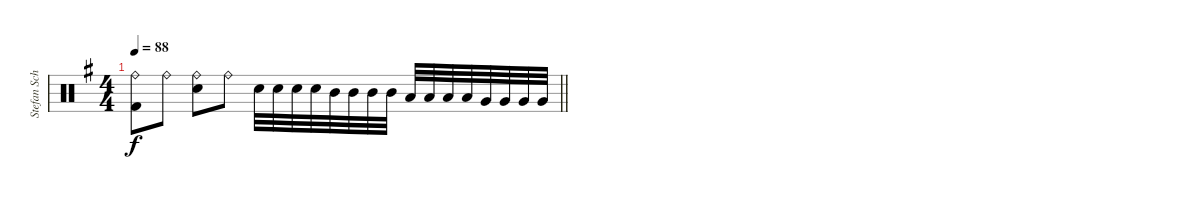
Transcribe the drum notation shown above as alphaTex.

\track ("Stefan Schwarzmann" "Stefan Sch") {instrument percussion}
\staff {score}
\articulation defaults
\ts (4 4)
\tempo 88
\clef neutral
\barLineRight lightlight
\ks eminor
("Ride (bell)" "Kick (hit) 2").8{dy f} "Ride (bell)".8 ("Ride (bell)" "Snare (hit) 2").8 "Ride (bell)".8 "Snare (hit) 2".32 "Snare (hit) 2".32 "Snare (hit) 2".32 "Snare (hit) 2".32 "Mid Tom (hit)".32 "Mid Tom (hit)".32 "Mid Tom (hit)".32 "Mid Tom (hit)".32 "Low Tom (hit)".32 "Low Tom (hit)".32 "Low Tom (hit)".32 "Low Tom (hit)".32 "Very Low Tom (hit)".32 "Very Low Tom (hit)".32 "Very Low Tom (hit)".32 "Very Low Tom (hit)".32
